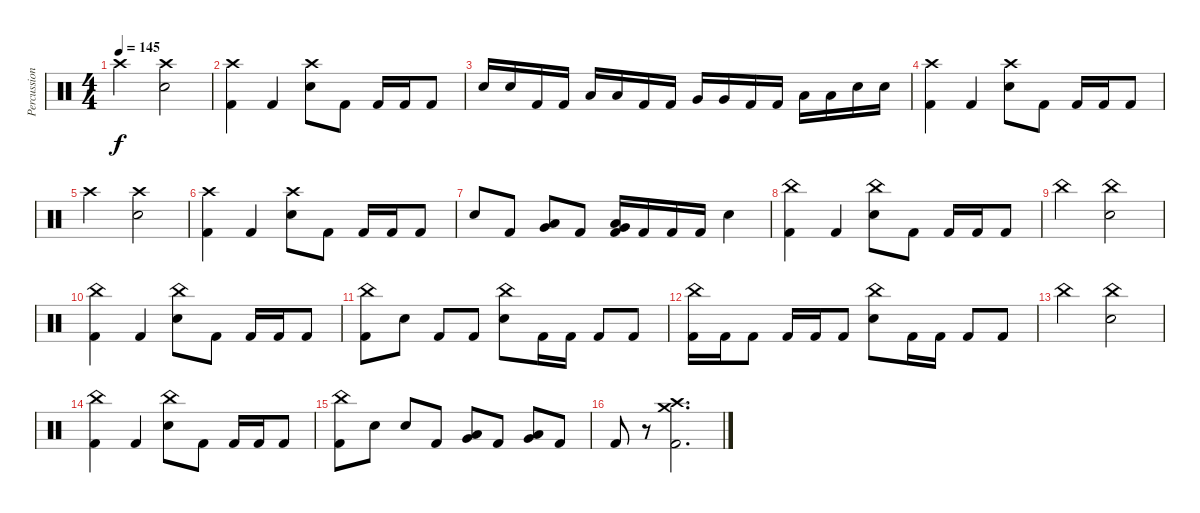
\track ("Percussion" "Percussion") {instrument percussion}
\staff {score}
\articulation defaults
\ts (4 4)
\tempo 145
\clef neutral
\ks c "Crash high (hit)".2{dy f}
("Crash high (hit)" "Electric Snare (hit)").2 |
("Crash high (hit)" "Kick (hit) 2").4 "Kick (hit) 2".4 ("Crash high (hit)" "Electric Snare (hit)").8 "Kick (hit) 2".8 "Kick (hit) 2".16 "Kick (hit) 2".16 "Kick (hit) 2".8 |
"Electric Snare (hit)".16 "Electric Snare (hit)".16 "Kick (hit) 2".16 "Kick (hit) 2".16 "Low Tom (hit)".16 "Low Tom (hit)".16 "Kick (hit) 2".16 "Kick (hit) 2".16 "Very Low Tom (hit)".16 "Very Low Tom (hit)".16 "Kick (hit) 2".16 "Kick (hit) 2".16 "Low Floor Tom (hit)".16 "Low Floor Tom (hit)".16 "Electric Snare (hit)".16 "Electric Snare (hit)".16 |
("Crash high (hit)" "Kick (hit) 2").4 "Kick (hit) 2".4 ("Crash high (hit)" "Electric Snare (hit)").8 "Kick (hit) 2".8 "Kick (hit) 2".16 "Kick (hit) 2".16 "Kick (hit) 2".8 |
"Crash high (hit)".2 ("Crash high (hit)" "Electric Snare (hit)").2 |
("Crash high (hit)" "Kick (hit) 2").4 "Kick (hit) 2".4 ("Crash high (hit)" "Electric Snare (hit)").8 "Kick (hit) 2".8 "Kick (hit) 2".16 "Kick (hit) 2".16 "Kick (hit) 2".8 |
"Electric Snare (hit)".8 "Kick (hit) 2".8 ("Low Tom (hit)" "Very Low Tom (hit)").8 "Kick (hit) 2".8 ("Low Floor Tom (hit)" "Very Low Tom (hit)" "Kick (hit) 2").16 "Kick (hit) 2".16 "Kick (hit) 2".16 "Kick (hit) 2".16 "Electric Snare (hit)".4 |
("China (hit)" "Kick (hit) 2").4 "Kick (hit) 2".4 ("China (hit)" "Electric Snare (hit)").8 "Kick (hit) 2".8 "Kick (hit) 2".16 "Kick (hit) 2".16 "Kick (hit) 2".8 |
"China (hit)".2 ("China (hit)" "Electric Snare (hit)").2 |
("China (hit)" "Kick (hit) 2").4 "Kick (hit) 2".4 ("China (hit)" "Electric Snare (hit)").8 "Kick (hit) 2".8 "Kick (hit) 2".16 "Kick (hit) 2".16 "Kick (hit) 2".8 |
("China (hit)" "Kick (hit) 2").8 "Electric Snare (hit)".8 "Kick (hit) 2".8 "Kick (hit) 2".8 ("China (hit)" "Electric Snare (hit)").8 "Kick (hit) 2".16 "Kick (hit) 2".16 "Kick (hit) 2".8 "Kick (hit) 2".8 |
("China (hit)" "Kick (hit) 2").16 "Kick (hit) 2".16 "Kick (hit) 2".8 "Kick (hit) 2".16 "Kick (hit) 2".16 "Kick (hit) 2".8 ("China (hit)" "Electric Snare (hit)").8 "Kick (hit) 2".16 "Kick (hit) 2".16 "Kick (hit) 2".8 "Kick (hit) 2".8 |
"China (hit)".2 ("China (hit)" "Electric Snare (hit)").2 |
("China (hit)" "Kick (hit) 2").4 "Kick (hit) 2".4 ("China (hit)" "Electric Snare (hit)").8 "Kick (hit) 2".8 "Kick (hit) 2".16 "Kick (hit) 2".16 "Kick (hit) 2".8 |
("China (hit)" "Kick (hit) 2").8 "Electric Snare (hit)".8 "Electric Snare (hit)".8 "Kick (hit) 2".8 ("Low Tom (hit)" "Very Low Tom (hit)").8 "Kick (hit) 2".8 ("Very Low Tom (hit)" "Low Floor Tom (hit)").8 "Kick (hit) 2".8 |
"Kick (hit) 2".8 r.8 ("Crash high (hit)" "Crash medium (hit)" "Kick (hit) 2").2{d}
